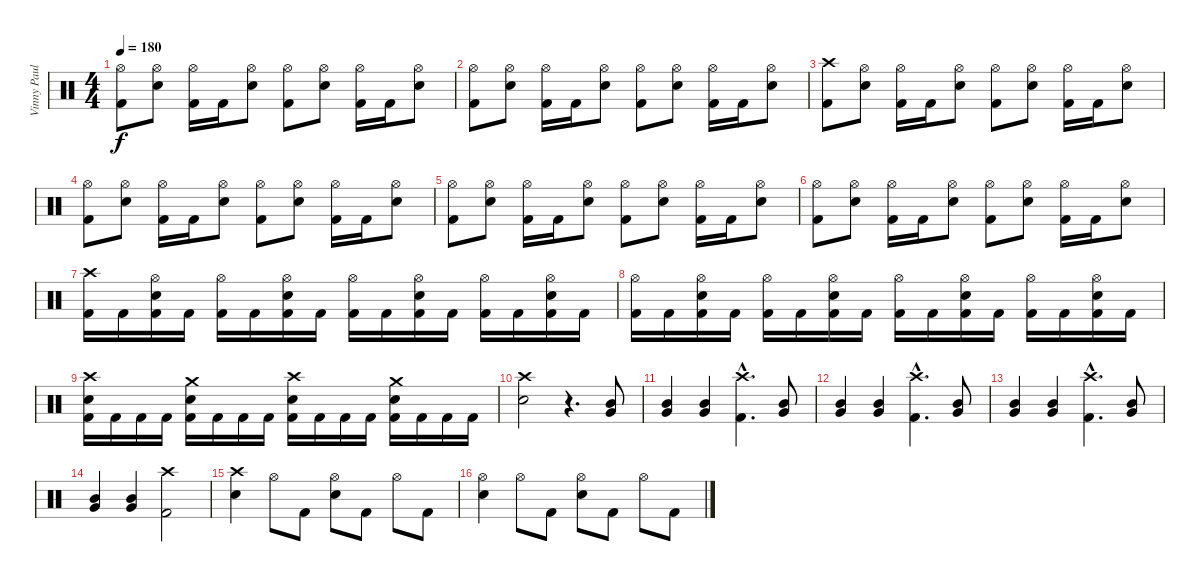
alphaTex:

\track ("Vinny Paul" "Vinny Paul") {instrument percussion}
\staff {score}
\articulation defaults
\ts (4 4)
\tempo 180
\clef neutral
\ks c
("Hi-Hat (open)" "Kick (hit) 2").8{dy f} ("Hi-Hat (open)" "Electric Snare (hit)").8 ("Hi-Hat (open)" "Kick (hit) 2").16 "Kick (hit) 2".16 ("Hi-Hat (open)" "Electric Snare (hit)").8 ("Hi-Hat (open)" "Kick (hit) 2").8 ("Hi-Hat (open)" "Electric Snare (hit)").8 ("Hi-Hat (open)" "Kick (hit) 2").16 "Kick (hit) 2".16 ("Hi-Hat (open)" "Electric Snare (hit)").8 |
("Hi-Hat (open)" "Kick (hit) 2").8 ("Hi-Hat (open)" "Electric Snare (hit)").8 ("Hi-Hat (open)" "Kick (hit) 2").16 "Kick (hit) 2".16 ("Hi-Hat (open)" "Electric Snare (hit)").8 ("Hi-Hat (open)" "Kick (hit) 2").8 ("Hi-Hat (open)" "Electric Snare (hit)").8 ("Hi-Hat (open)" "Kick (hit) 2").16 "Kick (hit) 2".16 ("Hi-Hat (open)" "Electric Snare (hit)").8 |
("Crash high (hit)" "Kick (hit) 2").8 ("Hi-Hat (open)" "Electric Snare (hit)").8 ("Hi-Hat (open)" "Kick (hit) 2").16 "Kick (hit) 2".16 ("Hi-Hat (open)" "Electric Snare (hit)").8 ("Hi-Hat (open)" "Kick (hit) 2").8 ("Hi-Hat (open)" "Electric Snare (hit)").8 ("Hi-Hat (open)" "Kick (hit) 2").16 "Kick (hit) 2".16 ("Hi-Hat (open)" "Electric Snare (hit)").8 |
("Hi-Hat (open)" "Kick (hit) 2").8 ("Hi-Hat (open)" "Electric Snare (hit)").8 ("Hi-Hat (open)" "Kick (hit) 2").16 "Kick (hit) 2".16 ("Hi-Hat (open)" "Electric Snare (hit)").8 ("Hi-Hat (open)" "Kick (hit) 2").8 ("Hi-Hat (open)" "Electric Snare (hit)").8 ("Hi-Hat (open)" "Kick (hit) 2").16 "Kick (hit) 2".16 ("Hi-Hat (open)" "Electric Snare (hit)").8 |
("Hi-Hat (open)" "Kick (hit) 2").8 ("Hi-Hat (open)" "Electric Snare (hit)").8 ("Hi-Hat (open)" "Kick (hit) 2").16 "Kick (hit) 2".16 ("Hi-Hat (open)" "Electric Snare (hit)").8 ("Hi-Hat (open)" "Kick (hit) 2").8 ("Hi-Hat (open)" "Electric Snare (hit)").8 ("Hi-Hat (open)" "Kick (hit) 2").16 "Kick (hit) 2".16 ("Hi-Hat (open)" "Electric Snare (hit)").8 |
("Hi-Hat (open)" "Kick (hit) 2").8 ("Hi-Hat (open)" "Electric Snare (hit)").8 ("Hi-Hat (open)" "Kick (hit) 2").16 "Kick (hit) 2".16 ("Hi-Hat (open)" "Electric Snare (hit)").8 ("Hi-Hat (open)" "Kick (hit) 2").8 ("Hi-Hat (open)" "Electric Snare (hit)").8 ("Hi-Hat (open)" "Kick (hit) 2").16 "Kick (hit) 2".16 ("Hi-Hat (open)" "Electric Snare (hit)").8 |
("Crash high (hit)" "Kick (hit) 2").16 "Kick (hit) 2".16 ("Hi-Hat (open)" "Electric Snare (hit)" "Kick (hit) 2").16 "Kick (hit) 2".16 ("Hi-Hat (open)" "Kick (hit) 2").16 "Kick (hit) 2".16 ("Hi-Hat (open)" "Electric Snare (hit)" "Kick (hit) 2").16 "Kick (hit) 2".16 ("Hi-Hat (open)" "Kick (hit) 2").16 "Kick (hit) 2".16 ("Hi-Hat (open)" "Electric Snare (hit)" "Kick (hit) 2").16 "Kick (hit) 2".16 ("Hi-Hat (open)" "Kick (hit) 2").16 "Kick (hit) 2".16 ("Hi-Hat (open)" "Electric Snare (hit)" "Kick (hit) 2").16 "Kick (hit) 2".16 |
("Hi-Hat (open)" "Kick (hit) 2").16 "Kick (hit) 2".16 ("Hi-Hat (open)" "Electric Snare (hit)" "Kick (hit) 2").16 "Kick (hit) 2".16 ("Hi-Hat (open)" "Kick (hit) 2").16 "Kick (hit) 2".16 ("Hi-Hat (open)" "Electric Snare (hit)" "Kick (hit) 2").16 "Kick (hit) 2".16 ("Hi-Hat (open)" "Kick (hit) 2").16 "Kick (hit) 2".16 ("Hi-Hat (open)" "Electric Snare (hit)" "Kick (hit) 2").16 "Kick (hit) 2".16 ("Hi-Hat (open)" "Kick (hit) 2").16 "Kick (hit) 2".16 ("Hi-Hat (open)" "Electric Snare (hit)" "Kick (hit) 2").16 "Kick (hit) 2".16 |
("Crash high (hit)" "Electric Snare (hit)" "Kick (hit) 2").16 "Kick (hit) 2".16 "Kick (hit) 2".16 "Kick (hit) 2".16 ("Crash medium (hit)" "Electric Snare (hit)" "Kick (hit) 2").16 "Kick (hit) 2".16 "Kick (hit) 2".16 "Kick (hit) 2".16 ("Crash high (hit)" "Electric Snare (hit)" "Kick (hit) 2").16 "Kick (hit) 2".16 "Kick (hit) 2".16 "Kick (hit) 2".16 ("Crash medium (hit)" "Electric Snare (hit)" "Kick (hit) 2").16 "Kick (hit) 2".16 "Kick (hit) 2".16 "Kick (hit) 2".16 |
("Crash high (hit)" "Electric Snare (hit)").2 r.4{d} ("Mid Tom (hit)" "Very Low Tom (hit)").8 |
("Mid Tom (hit)" "Very Low Tom (hit)").4 ("Mid Tom (hit)" "Very Low Tom (hit)").4 ("Crash high (hit)"{hac} "Kick (hit) 2"{hac}).4{d} ("Mid Tom (hit)" "Very Low Tom (hit)").8 |
("Mid Tom (hit)" "Very Low Tom (hit)").4 ("Mid Tom (hit)" "Very Low Tom (hit)").4 ("Crash high (hit)"{hac} "Kick (hit) 2"{hac}).4{d} ("Mid Tom (hit)" "Very Low Tom (hit)").8 |
("Mid Tom (hit)" "Very Low Tom (hit)").4 ("Mid Tom (hit)" "Very Low Tom (hit)").4 ("Crash high (hit)"{hac} "Kick (hit) 2"{hac}).4{d} ("Mid Tom (hit)" "Very Low Tom (hit)").8 |
("Mid Tom (hit)" "Very Low Tom (hit)").4 ("Mid Tom (hit)" "Very Low Tom (hit)").4 ("Crash high (hit)" "Kick (hit) 2").2 |
("Crash high (hit)" "Electric Snare (hit)").4 "Hi-Hat (open)".8 "Kick (hit) 2".8 ("Hi-Hat (open)" "Electric Snare (hit)").8 "Kick (hit) 2".8 "Hi-Hat (open)".8 "Kick (hit) 2".8 |
("Hi-Hat (open)" "Electric Snare (hit)").4 "Hi-Hat (open)".8 "Kick (hit) 2".8 ("Hi-Hat (open)" "Electric Snare (hit)").8 "Kick (hit) 2".8 "Hi-Hat (open)".8 "Kick (hit) 2".8
